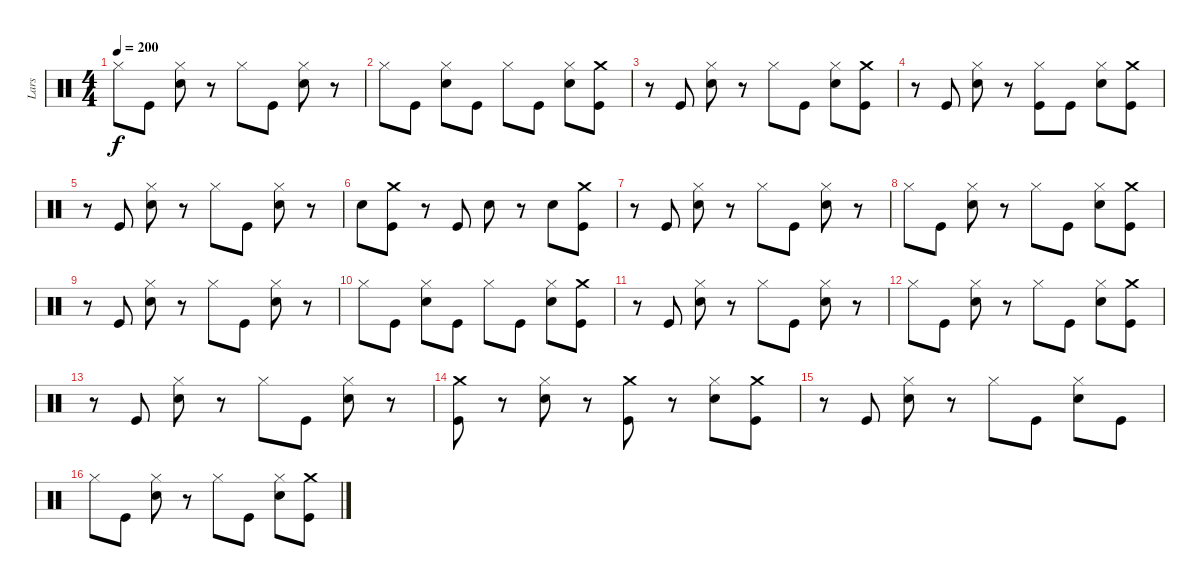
\track ("Lars" "Lars") {instrument percussion}
\staff {score}
\articulation defaults
\ts (4 4)
\tempo 200
\clef neutral
\ks c "Hi-Hat (closed)".8{dy f} "Kick (hit)".8
("Hi-Hat (closed)" "Snare (hit) 2").8 r.8 "Hi-Hat (closed)".8 "Kick (hit)".8 ("Hi-Hat (closed)" "Snare (hit) 2").8 r.8 |
"Hi-Hat (closed)".8 "Kick (hit)".8 ("Hi-Hat (closed)" "Snare (hit) 2").8 "Kick (hit)".8 "Hi-Hat (closed)".8 "Kick (hit)".8 ("Hi-Hat (closed)" "Snare (hit) 2").8 ("Crash medium (hit)" "Kick (hit)").8 |
r.8 "Kick (hit)".8 ("Hi-Hat (closed)" "Snare (hit) 2").8 r.8 "Hi-Hat (closed)".8 "Kick (hit)".8 ("Hi-Hat (closed)" "Snare (hit) 2").8 ("Crash medium (hit)" "Kick (hit)").8 |
r.8 "Kick (hit)".8 ("Hi-Hat (closed)" "Snare (hit) 2").8 r.8 ("Kick (hit)" "Hi-Hat (closed)").8 "Kick (hit)".8 ("Hi-Hat (closed)" "Snare (hit) 2").8 ("Crash medium (hit)" "Kick (hit)").8 |
r.8 "Kick (hit)".8 ("Hi-Hat (closed)" "Snare (hit) 2").8 r.8 "Hi-Hat (closed)".8 "Kick (hit)".8 ("Hi-Hat (closed)" "Snare (hit) 2").8 r.8 |
"Snare (hit) 2".8 ("Kick (hit)" "Crash medium (hit)").8 r.8 "Kick (hit)".8 "Snare (hit) 2".8 r.8 "Snare (hit) 2".8 ("Crash medium (hit)" "Kick (hit)").8 |
r.8 "Kick (hit)".8 ("Hi-Hat (closed)" "Snare (hit) 2").8 r.8 "Hi-Hat (closed)".8 "Kick (hit)".8 ("Hi-Hat (closed)" "Snare (hit) 2").8 r.8 |
"Hi-Hat (closed)".8 "Kick (hit)".8 ("Hi-Hat (closed)" "Snare (hit) 2").8 r.8 "Hi-Hat (closed)".8 "Kick (hit)".8 ("Hi-Hat (closed)" "Snare (hit) 2").8 ("Crash medium (hit)" "Kick (hit)").8 |
r.8 "Kick (hit)".8 ("Hi-Hat (closed)" "Snare (hit) 2").8 r.8 "Hi-Hat (closed)".8 "Kick (hit)".8 ("Hi-Hat (closed)" "Snare (hit) 2").8 r.8 |
"Hi-Hat (closed)".8 "Kick (hit)".8 ("Hi-Hat (closed)" "Snare (hit) 2").8 "Kick (hit)".8 "Hi-Hat (closed)".8 "Kick (hit)".8 ("Hi-Hat (closed)" "Snare (hit) 2").8 ("Crash medium (hit)" "Kick (hit)").8 |
r.8 "Kick (hit)".8 ("Hi-Hat (closed)" "Snare (hit) 2").8 r.8 "Hi-Hat (closed)".8 "Kick (hit)".8 ("Hi-Hat (closed)" "Snare (hit) 2").8 r.8 |
"Hi-Hat (closed)".8 "Kick (hit)".8 ("Hi-Hat (closed)" "Snare (hit) 2").8 r.8 "Hi-Hat (closed)".8 "Kick (hit)".8 ("Hi-Hat (closed)" "Snare (hit) 2").8 ("Crash medium (hit)" "Kick (hit)").8 |
r.8 "Kick (hit)".8 ("Hi-Hat (closed)" "Snare (hit) 2").8 r.8 "Hi-Hat (closed)".8 "Kick (hit)".8 ("Hi-Hat (closed)" "Snare (hit) 2").8 r.8 |
("Crash medium (hit)" "Kick (hit)").8 r.8 ("Snare (hit) 2" "Hi-Hat (closed)").8 r.8 ("Crash medium (hit)" "Kick (hit)").8 r.8 ("Hi-Hat (closed)" "Snare (hit) 2").8 ("Crash medium (hit)" "Kick (hit)").8 |
r.8 "Kick (hit)".8 ("Hi-Hat (closed)" "Snare (hit) 2").8 r.8 "Hi-Hat (closed)".8 "Kick (hit)".8 ("Snare (hit) 2" "Hi-Hat (closed)").8 "Kick (hit)".8 |
"Hi-Hat (closed)".8 "Kick (hit)".8 ("Hi-Hat (closed)" "Snare (hit) 2").8 r.8 "Hi-Hat (closed)".8 "Kick (hit)".8 ("Hi-Hat (closed)" "Snare (hit) 2").8 ("Crash medium (hit)" "Kick (hit)").8
